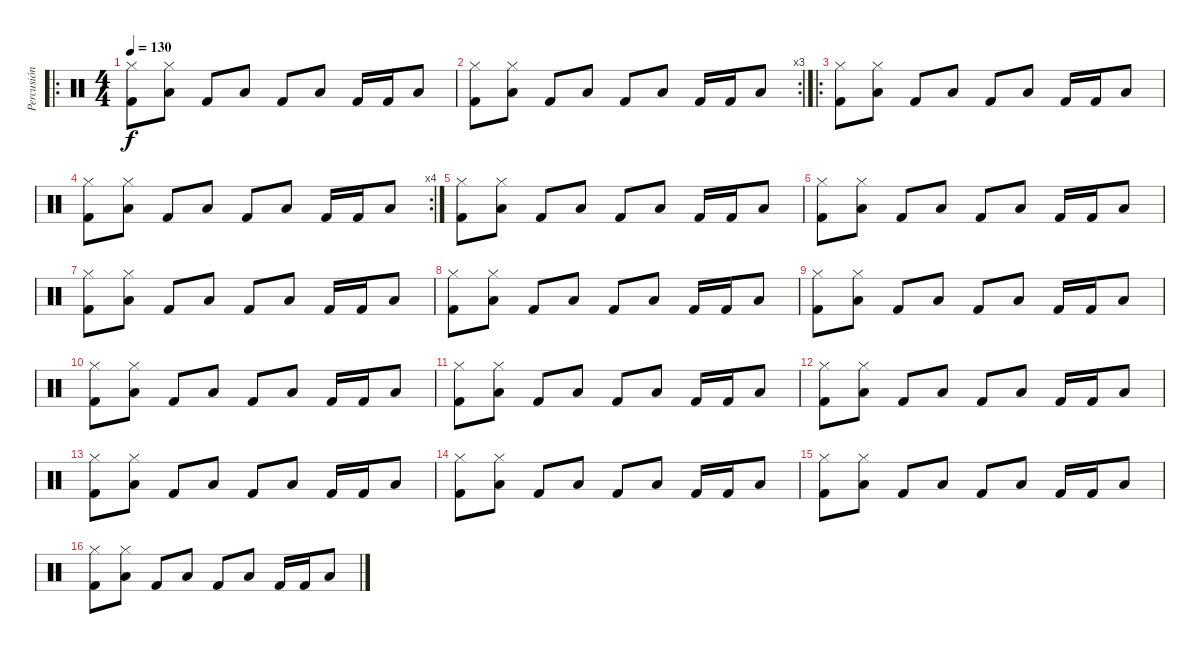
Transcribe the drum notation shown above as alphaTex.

\track ("Percusión" "Percusión") {instrument percussion}
\staff {score}
\articulation defaults
\ro
\ts (4 4)
\tempo 130
\clef neutral
\ks c
("Hi-Hat (closed)" "Kick (hit) 2").8{dy f} ("Hi-Hat (closed)" "Low Tom (hit)").8 "Kick (hit) 2".8 "Low Tom (hit)".8 "Kick (hit) 2".8 "Low Tom (hit)".8 "Kick (hit) 2".16 "Kick (hit) 2".16 "Low Tom (hit)".8 |
\rc 3
("Hi-Hat (closed)" "Kick (hit) 2").8 ("Hi-Hat (closed)" "Low Tom (hit)").8 "Kick (hit) 2".8 "Low Tom (hit)".8 "Kick (hit) 2".8 "Low Tom (hit)".8 "Kick (hit) 2".16 "Kick (hit) 2".16 "Low Tom (hit)".8 |
\ro
("Hi-Hat (closed)" "Kick (hit) 2").8 ("Hi-Hat (closed)" "Low Tom (hit)").8 "Kick (hit) 2".8 "Low Tom (hit)".8 "Kick (hit) 2".8 "Low Tom (hit)".8 "Kick (hit) 2".16 "Kick (hit) 2".16 "Low Tom (hit)".8 |
\rc 4
("Hi-Hat (closed)" "Kick (hit) 2").8 ("Hi-Hat (closed)" "Low Tom (hit)").8 "Kick (hit) 2".8 "Low Tom (hit)".8 "Kick (hit) 2".8 "Low Tom (hit)".8 "Kick (hit) 2".16 "Kick (hit) 2".16 "Low Tom (hit)".8 |
("Hi-Hat (closed)" "Kick (hit) 2").8 ("Hi-Hat (closed)" "Low Tom (hit)").8 "Kick (hit) 2".8 "Low Tom (hit)".8 "Kick (hit) 2".8 "Low Tom (hit)".8 "Kick (hit) 2".16 "Kick (hit) 2".16 "Low Tom (hit)".8 |
("Hi-Hat (closed)" "Kick (hit) 2").8 ("Hi-Hat (closed)" "Low Tom (hit)").8 "Kick (hit) 2".8 "Low Tom (hit)".8 "Kick (hit) 2".8 "Low Tom (hit)".8 "Kick (hit) 2".16 "Kick (hit) 2".16 "Low Tom (hit)".8 |
("Hi-Hat (closed)" "Kick (hit) 2").8 ("Hi-Hat (closed)" "Low Tom (hit)").8 "Kick (hit) 2".8 "Low Tom (hit)".8 "Kick (hit) 2".8 "Low Tom (hit)".8 "Kick (hit) 2".16 "Kick (hit) 2".16 "Low Tom (hit)".8 |
("Hi-Hat (closed)" "Kick (hit) 2").8 ("Hi-Hat (closed)" "Low Tom (hit)").8 "Kick (hit) 2".8 "Low Tom (hit)".8 "Kick (hit) 2".8 "Low Tom (hit)".8 "Kick (hit) 2".16 "Kick (hit) 2".16 "Low Tom (hit)".8 |
("Hi-Hat (closed)" "Kick (hit) 2").8 ("Hi-Hat (closed)" "Low Tom (hit)").8 "Kick (hit) 2".8 "Low Tom (hit)".8 "Kick (hit) 2".8 "Low Tom (hit)".8 "Kick (hit) 2".16 "Kick (hit) 2".16 "Low Tom (hit)".8 |
("Hi-Hat (closed)" "Kick (hit) 2").8 ("Hi-Hat (closed)" "Low Tom (hit)").8 "Kick (hit) 2".8 "Low Tom (hit)".8 "Kick (hit) 2".8 "Low Tom (hit)".8 "Kick (hit) 2".16 "Kick (hit) 2".16 "Low Tom (hit)".8 |
("Hi-Hat (closed)" "Kick (hit) 2").8 ("Hi-Hat (closed)" "Low Tom (hit)").8 "Kick (hit) 2".8 "Low Tom (hit)".8 "Kick (hit) 2".8 "Low Tom (hit)".8 "Kick (hit) 2".16 "Kick (hit) 2".16 "Low Tom (hit)".8 |
("Hi-Hat (closed)" "Kick (hit) 2").8 ("Hi-Hat (closed)" "Low Tom (hit)").8 "Kick (hit) 2".8 "Low Tom (hit)".8 "Kick (hit) 2".8 "Low Tom (hit)".8 "Kick (hit) 2".16 "Kick (hit) 2".16 "Low Tom (hit)".8 |
("Hi-Hat (closed)" "Kick (hit) 2").8 ("Hi-Hat (closed)" "Low Tom (hit)").8 "Kick (hit) 2".8 "Low Tom (hit)".8 "Kick (hit) 2".8 "Low Tom (hit)".8 "Kick (hit) 2".16 "Kick (hit) 2".16 "Low Tom (hit)".8 |
("Hi-Hat (closed)" "Kick (hit) 2").8 ("Hi-Hat (closed)" "Low Tom (hit)").8 "Kick (hit) 2".8 "Low Tom (hit)".8 "Kick (hit) 2".8 "Low Tom (hit)".8 "Kick (hit) 2".16 "Kick (hit) 2".16 "Low Tom (hit)".8 |
("Hi-Hat (closed)" "Kick (hit) 2").8 ("Hi-Hat (closed)" "Low Tom (hit)").8 "Kick (hit) 2".8 "Low Tom (hit)".8 "Kick (hit) 2".8 "Low Tom (hit)".8 "Kick (hit) 2".16 "Kick (hit) 2".16 "Low Tom (hit)".8 |
("Hi-Hat (closed)" "Kick (hit) 2").8 ("Hi-Hat (closed)" "Low Tom (hit)").8 "Kick (hit) 2".8 "Low Tom (hit)".8 "Kick (hit) 2".8 "Low Tom (hit)".8 "Kick (hit) 2".16 "Kick (hit) 2".16 "Low Tom (hit)".8
